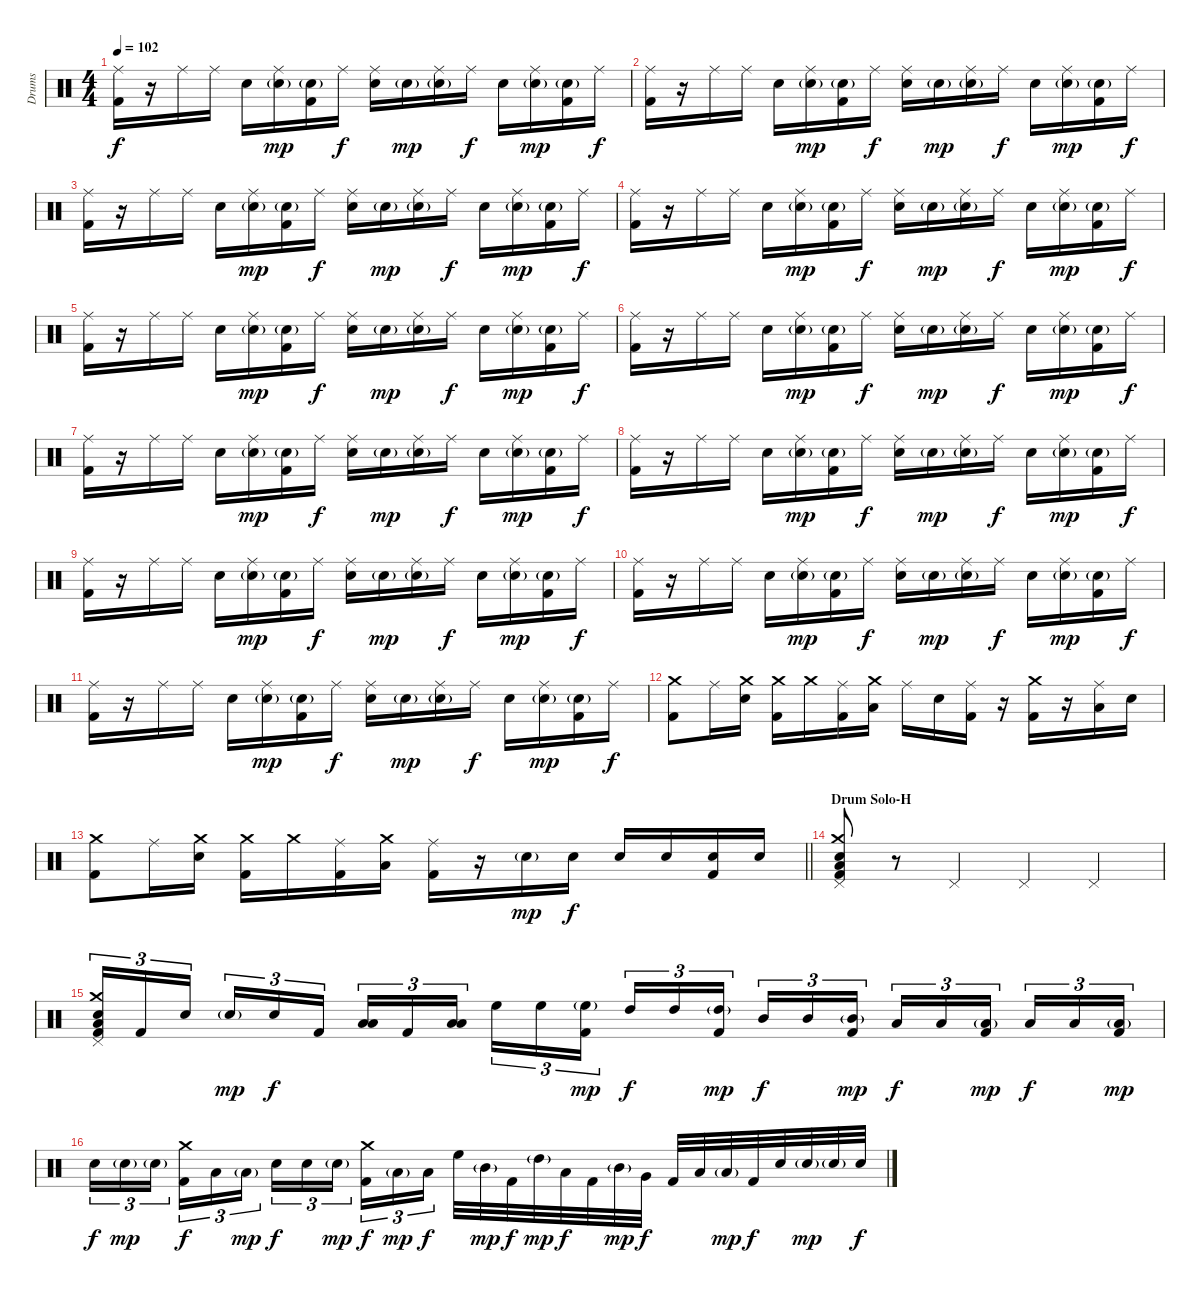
\track ("Drums" "Drums") {instrument percussion}
\staff {score}
\articulation defaults
\ts (4 4)
\tempo 102
\clef neutral
\ks c
("Ride (middle)" "Kick (hit) 2").16{dy f} r.16 "Ride (middle)".16 "Ride (middle)".16 "Electric Snare (hit)".16 ("Ride (middle)" "Electric Snare (hit)"{g}).16{dy mp} ("Electric Snare (hit)"{g} "Kick (hit) 2").16 "Ride (middle)".16{dy f} ("Ride (middle)" "Electric Snare (hit)").16 "Electric Snare (hit)"{g}.16{dy mp} ("Ride (middle)" "Electric Snare (hit)"{g}).16 "Ride (middle)".16{dy f} "Electric Snare (hit)".16 ("Ride (middle)" "Electric Snare (hit)"{g}).16{dy mp} ("Electric Snare (hit)"{g} "Kick (hit) 2").16 "Ride (middle)".16{dy f} |
("Ride (middle)" "Kick (hit) 2").16 r.16 "Ride (middle)".16 "Ride (middle)".16 "Electric Snare (hit)".16 ("Ride (middle)" "Electric Snare (hit)"{g}).16{dy mp} ("Electric Snare (hit)"{g} "Kick (hit) 2").16 "Ride (middle)".16{dy f} ("Ride (middle)" "Electric Snare (hit)").16 "Electric Snare (hit)"{g}.16{dy mp} ("Ride (middle)" "Electric Snare (hit)"{g}).16 "Ride (middle)".16{dy f} "Electric Snare (hit)".16 ("Ride (middle)" "Electric Snare (hit)"{g}).16{dy mp} ("Electric Snare (hit)"{g} "Kick (hit) 2").16 "Ride (middle)".16{dy f} |
("Ride (middle)" "Kick (hit) 2").16 r.16 "Ride (middle)".16 "Ride (middle)".16 "Electric Snare (hit)".16 ("Ride (middle)" "Electric Snare (hit)"{g}).16{dy mp} ("Electric Snare (hit)"{g} "Kick (hit) 2").16 "Ride (middle)".16{dy f} ("Ride (middle)" "Electric Snare (hit)").16 "Electric Snare (hit)"{g}.16{dy mp} ("Ride (middle)" "Electric Snare (hit)"{g}).16 "Ride (middle)".16{dy f} "Electric Snare (hit)".16 ("Ride (middle)" "Electric Snare (hit)"{g}).16{dy mp} ("Electric Snare (hit)"{g} "Kick (hit) 2").16 "Ride (middle)".16{dy f} |
("Ride (middle)" "Kick (hit) 2").16 r.16 "Ride (middle)".16 "Ride (middle)".16 "Electric Snare (hit)".16 ("Ride (middle)" "Electric Snare (hit)"{g}).16{dy mp} ("Electric Snare (hit)"{g} "Kick (hit) 2").16 "Ride (middle)".16{dy f} ("Ride (middle)" "Electric Snare (hit)").16 "Electric Snare (hit)"{g}.16{dy mp} ("Ride (middle)" "Electric Snare (hit)"{g}).16 "Ride (middle)".16{dy f} "Electric Snare (hit)".16 ("Ride (middle)" "Electric Snare (hit)"{g}).16{dy mp} ("Electric Snare (hit)"{g} "Kick (hit) 2").16 "Ride (middle)".16{dy f} |
("Ride (middle)" "Kick (hit) 2").16 r.16 "Ride (middle)".16 "Ride (middle)".16 "Electric Snare (hit)".16 ("Ride (middle)" "Electric Snare (hit)"{g}).16{dy mp} ("Electric Snare (hit)"{g} "Kick (hit) 2").16 "Ride (middle)".16{dy f} ("Ride (middle)" "Electric Snare (hit)").16 "Electric Snare (hit)"{g}.16{dy mp} ("Ride (middle)" "Electric Snare (hit)"{g}).16 "Ride (middle)".16{dy f} "Electric Snare (hit)".16 ("Ride (middle)" "Electric Snare (hit)"{g}).16{dy mp} ("Electric Snare (hit)"{g} "Kick (hit) 2").16 "Ride (middle)".16{dy f} |
("Ride (middle)" "Kick (hit) 2").16 r.16 "Ride (middle)".16 "Ride (middle)".16 "Electric Snare (hit)".16 ("Ride (middle)" "Electric Snare (hit)"{g}).16{dy mp} ("Electric Snare (hit)"{g} "Kick (hit) 2").16 "Ride (middle)".16{dy f} ("Ride (middle)" "Electric Snare (hit)").16 "Electric Snare (hit)"{g}.16{dy mp} ("Ride (middle)" "Electric Snare (hit)"{g}).16 "Ride (middle)".16{dy f} "Electric Snare (hit)".16 ("Ride (middle)" "Electric Snare (hit)"{g}).16{dy mp} ("Electric Snare (hit)"{g} "Kick (hit) 2").16 "Ride (middle)".16{dy f} |
("Ride (middle)" "Kick (hit) 2").16 r.16 "Ride (middle)".16 "Ride (middle)".16 "Electric Snare (hit)".16 ("Ride (middle)" "Electric Snare (hit)"{g}).16{dy mp} ("Electric Snare (hit)"{g} "Kick (hit) 2").16 "Ride (middle)".16{dy f} ("Ride (middle)" "Electric Snare (hit)").16 "Electric Snare (hit)"{g}.16{dy mp} ("Ride (middle)" "Electric Snare (hit)"{g}).16 "Ride (middle)".16{dy f} "Electric Snare (hit)".16 ("Ride (middle)" "Electric Snare (hit)"{g}).16{dy mp} ("Electric Snare (hit)"{g} "Kick (hit) 2").16 "Ride (middle)".16{dy f} |
("Ride (middle)" "Kick (hit) 2").16 r.16 "Ride (middle)".16 "Ride (middle)".16 "Electric Snare (hit)".16 ("Ride (middle)" "Electric Snare (hit)"{g}).16{dy mp} ("Electric Snare (hit)"{g} "Kick (hit) 2").16 "Ride (middle)".16{dy f} ("Ride (middle)" "Electric Snare (hit)").16 "Electric Snare (hit)"{g}.16{dy mp} ("Ride (middle)" "Electric Snare (hit)"{g}).16 "Ride (middle)".16{dy f} "Electric Snare (hit)".16 ("Ride (middle)" "Electric Snare (hit)"{g}).16{dy mp} ("Electric Snare (hit)"{g} "Kick (hit) 2").16 "Ride (middle)".16{dy f} |
("Ride (middle)" "Kick (hit) 2").16 r.16 "Ride (middle)".16 "Ride (middle)".16 "Electric Snare (hit)".16 ("Ride (middle)" "Electric Snare (hit)"{g}).16{dy mp} ("Electric Snare (hit)"{g} "Kick (hit) 2").16 "Ride (middle)".16{dy f} ("Ride (middle)" "Electric Snare (hit)").16 "Electric Snare (hit)"{g}.16{dy mp} ("Ride (middle)" "Electric Snare (hit)"{g}).16 "Ride (middle)".16{dy f} "Electric Snare (hit)".16 ("Ride (middle)" "Electric Snare (hit)"{g}).16{dy mp} ("Electric Snare (hit)"{g} "Kick (hit) 2").16 "Ride (middle)".16{dy f} |
("Ride (middle)" "Kick (hit) 2").16 r.16 "Ride (middle)".16 "Ride (middle)".16 "Electric Snare (hit)".16 ("Ride (middle)" "Electric Snare (hit)"{g}).16{dy mp} ("Electric Snare (hit)"{g} "Kick (hit) 2").16 "Ride (middle)".16{dy f} ("Ride (middle)" "Electric Snare (hit)").16 "Electric Snare (hit)"{g}.16{dy mp} ("Ride (middle)" "Electric Snare (hit)"{g}).16 "Ride (middle)".16{dy f} "Electric Snare (hit)".16 ("Ride (middle)" "Electric Snare (hit)"{g}).16{dy mp} ("Electric Snare (hit)"{g} "Kick (hit) 2").16 "Ride (middle)".16{dy f} |
("Ride (middle)" "Kick (hit) 2").16 r.16 "Ride (middle)".16 "Ride (middle)".16 "Electric Snare (hit)".16 ("Ride (middle)" "Electric Snare (hit)"{g}).16{dy mp} ("Electric Snare (hit)"{g} "Kick (hit) 2").16 "Ride (middle)".16{dy f} ("Ride (middle)" "Electric Snare (hit)").16 "Electric Snare (hit)"{g}.16{dy mp} ("Ride (middle)" "Electric Snare (hit)"{g}).16 "Ride (middle)".16{dy f} "Electric Snare (hit)".16 ("Ride (middle)" "Electric Snare (hit)"{g}).16{dy mp} ("Electric Snare (hit)"{g} "Kick (hit) 2").16 "Ride (middle)".16{dy f} |
("Crash medium (hit)" "Kick (hit) 2").8 "Ride (middle)".16 ("Crash medium (hit)" "Electric Snare (hit)").16 ("Crash medium (hit)" "Kick (hit) 2").16 "Crash medium (hit)".16 ("Ride (middle)" "Kick (hit) 2").16 ("Crash medium (hit)" "Low Floor Tom (hit)").16 "Ride (middle)".16 "Electric Snare (hit)".16 ("Ride (middle)" "Kick (hit) 2").16 r.16 ("Crash medium (hit)" "Kick (hit) 2").16 r.16 ("Ride (middle)" "Low Floor Tom (hit)").16 "Electric Snare (hit)".16 |
\barLineRight lightlight
("Crash medium (hit)" "Kick (hit) 2").8 "Ride (middle)".16 ("Crash medium (hit)" "Electric Snare (hit)").16 ("Crash medium (hit)" "Kick (hit) 2").16 "Crash medium (hit)".16 ("Ride (middle)" "Kick (hit) 2").16 ("Crash medium (hit)" "Low Floor Tom (hit)").16 ("Ride (middle)" "Kick (hit) 2").16 r.16 "Electric Snare (hit)"{g}.16{dy mp} "Electric Snare (hit)".16{dy f} "Electric Snare (hit)".16 "Electric Snare (hit)".16 ("Electric Snare (hit)" "Kick (hit) 2").16 "Electric Snare (hit)".16 |
\section ("" "Drum Solo-H")
("Crash medium (hit)" "Pedal Hi-Hat (hit)" "Low Floor Tom (hit)" "Electric Snare (hit)" "Kick (hit) 2").8 r.8 "Pedal Hi-Hat (hit)".4 "Pedal Hi-Hat (hit)".4 "Pedal Hi-Hat (hit)".4 |
("Crash medium (hit)" "Pedal Hi-Hat (hit)" "Low Floor Tom (hit)" "Electric Snare (hit)" "Kick (hit) 2").16{tu (3 2)} "Kick (hit) 2".16{tu (3 2)} "Electric Snare (hit)".16{tu (3 2) beam splitsecondary} "Electric Snare (hit)"{g}.16{tu (3 2) dy mp} "Electric Snare (hit)".16{tu (3 2) dy f} "Kick (hit) 2".16{tu (3 2)} ("Low Tom (hit)" "Low Floor Tom (hit)").16{tu (3 2)} "Kick (hit) 2".16{tu (3 2)} ("Low Tom (hit)" "Low Floor Tom (hit)").16{tu (3 2) beam splitsecondary} "High Floor Tom (hit)".16{tu (3 2)} "High Floor Tom (hit)".16{tu (3 2)} ("High Floor Tom (hit)"{g} "Kick (hit) 2").16{tu (3 2) dy mp} "High Tom (hit)".16{tu (3 2) dy f} "High Tom (hit)".16{tu (3 2)} ("High Tom (hit)"{g} "Kick (hit) 2").16{tu (3 2) dy mp beam splitsecondary} "Mid Tom (hit)".16{tu (3 2) dy f} "Mid Tom (hit)".16{tu (3 2)} ("Mid Tom (hit)"{g} "Kick (hit) 2").16{tu (3 2) dy mp} "Low Tom (hit)".16{tu (3 2) dy f} "Low Tom (hit)".16{tu (3 2)} ("Low Tom (hit)"{g} "Kick (hit) 2").16{tu (3 2) dy mp beam splitsecondary} "Low Floor Tom (hit)".16{tu (3 2) dy f} "Low Floor Tom (hit)".16{tu (3 2)} ("Low Floor Tom (hit)"{g} "Kick (hit) 2").16{tu (3 2) dy mp} |
"Electric Snare (hit)".16{tu (3 2) dy f} "Electric Snare (hit)"{g}.16{tu (3 2) dy mp} "Electric Snare (hit)"{g}.16{tu (3 2) beam splitsecondary} ("Crash medium (hit)" "Kick (hit) 2").16{tu (3 2) dy f} "Low Floor Tom (hit)".16{tu (3 2)} "Low Floor Tom (hit)"{g}.16{tu (3 2) dy mp} "Electric Snare (hit)".16{tu (3 2) dy f} "Electric Snare (hit)".16{tu (3 2)} "Electric Snare (hit)"{g}.16{tu (3 2) dy mp beam splitsecondary} ("Crash medium (hit)" "Kick (hit) 2").16{tu (3 2) dy f} "Low Floor Tom (hit)"{g}.16{tu (3 2) dy mp} "Low Floor Tom (hit)".16{tu (3 2) dy f} "High Floor Tom (hit)".32 "Mid Tom (hit)"{g}.32{dy mp} "Kick (hit) 2".32{dy f} "High Tom (hit)"{g}.32{dy mp} "Low Tom (hit)".32{dy f} "Kick (hit) 2".32 "Mid Tom (hit)"{g}.32{dy mp} "Very Low Tom (hit)".32{dy f} "Kick (hit) 2".32 "Low Tom (hit)".32 "Low Floor Tom (hit)"{g}.32{dy mp} "Kick (hit) 2".32{dy f} "Electric Snare (hit)".32 "Electric Snare (hit)"{g}.32{dy mp} "Electric Snare (hit)"{g}.32 "Electric Snare (hit)".32{dy f}
